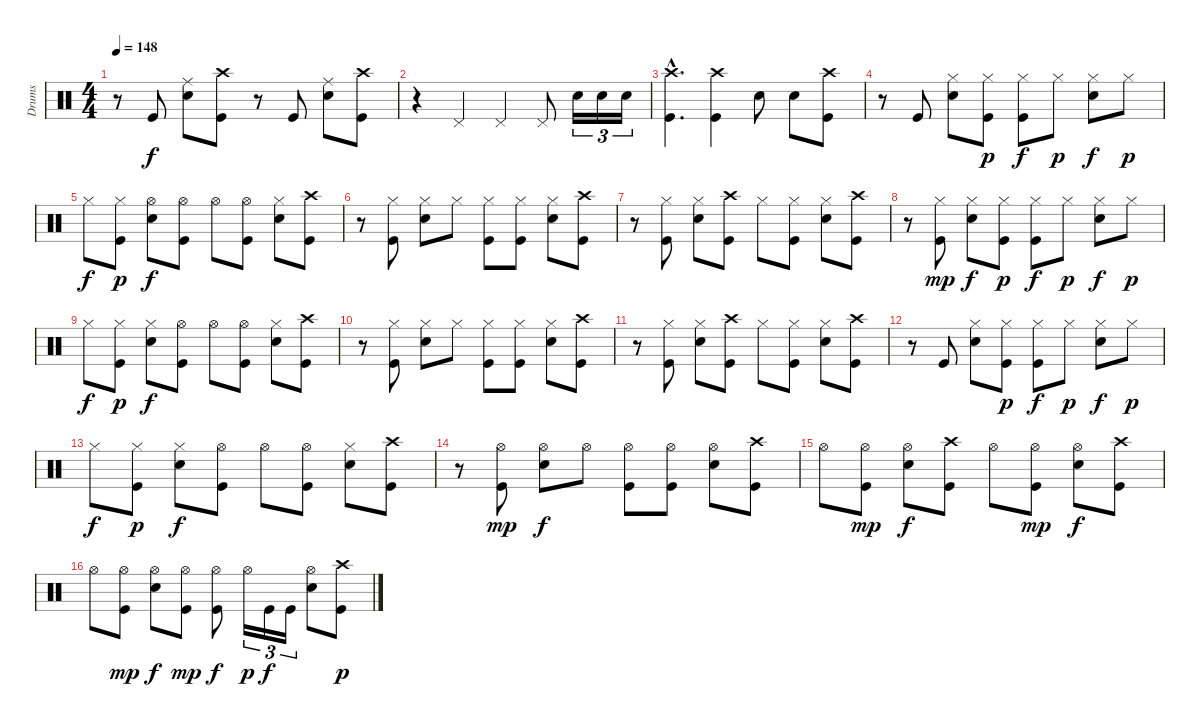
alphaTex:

\track ("Drums" "Drums") {instrument percussion}
\staff {score}
\articulation defaults
\ts (4 4)
\tempo 148
\clef neutral
\ks c
r.8{dy f} "Kick (hit)".8 ("Ride (middle)" "Snare (hit) 2").8 ("Crash high (hit)" "Kick (hit)").8 r.8 "Kick (hit)".8 ("Ride (middle)" "Snare (hit) 2").8 ("Crash high (hit)" "Kick (hit)").8 |
r.4 "Pedal Hi-Hat (hit)".4 "Pedal Hi-Hat (hit)".4 "Pedal Hi-Hat (hit)".8 "Snare (hit) 2".16{tu (3 2)} "Snare (hit) 2".16{tu (3 2)} "Snare (hit) 2".16{tu (3 2)} |
("Crash high (hit)"{hac} "Kick (hit)"{hac}).4{d} ("Crash high (hit)" "Kick (hit)").4 "Snare (hit) 2".8 "Snare (hit) 2".8 ("Crash high (hit)" "Kick (hit)").8 |
r.8 "Kick (hit)".8 ("Hi-Hat (closed)" "Snare (hit) 2").8 ("Hi-Hat (closed)" "Kick (hit)").8{dy p} ("Hi-Hat (closed)" "Kick (hit)").8{dy f} "Hi-Hat (closed)".8{dy p} ("Hi-Hat (closed)" "Snare (hit) 2").8{dy f} "Hi-Hat (closed)".8{dy p} |
"Hi-Hat (closed)".8{dy f} ("Hi-Hat (closed)" "Kick (hit)").8{dy p} ("Hi-Hat (open)" "Snare (hit) 2").8{dy f} ("Hi-Hat (open)" "Kick (hit)").8 "Hi-Hat (open)".8 ("Hi-Hat (open)" "Kick (hit)").8 ("Hi-Hat (closed)" "Snare (hit) 2").8 ("Crash high (hit)" "Kick (hit)").8 |
r.8 ("Hi-Hat (closed)" "Kick (hit)").8 ("Hi-Hat (closed)" "Snare (hit) 2").8 "Hi-Hat (closed)".8 ("Hi-Hat (closed)" "Kick (hit)").8 ("Hi-Hat (closed)" "Kick (hit)").8 ("Hi-Hat (closed)" "Snare (hit) 2").8 ("Crash high (hit)" "Kick (hit)").8 |
r.8 ("Hi-Hat (closed)" "Kick (hit)").8 ("Hi-Hat (closed)" "Snare (hit) 2").8 ("Crash high (hit)" "Kick (hit)").8 "Hi-Hat (closed)".8 ("Hi-Hat (closed)" "Kick (hit)").8 ("Hi-Hat (closed)" "Snare (hit) 2").8 ("Crash high (hit)" "Kick (hit)").8 |
r.8 ("Hi-Hat (closed)" "Kick (hit)").8{dy mp} ("Hi-Hat (closed)" "Snare (hit) 2").8{dy f} ("Hi-Hat (closed)" "Kick (hit)").8{dy p} ("Hi-Hat (closed)" "Kick (hit)").8{dy f} "Hi-Hat (closed)".8{dy p} ("Hi-Hat (closed)" "Snare (hit) 2").8{dy f} "Hi-Hat (closed)".8{dy p} |
"Hi-Hat (closed)".8{dy f} ("Hi-Hat (closed)" "Kick (hit)").8{dy p} ("Hi-Hat (closed)" "Snare (hit) 2").8{dy f} ("Hi-Hat (open)" "Kick (hit)").8 "Hi-Hat (open)".8 ("Hi-Hat (open)" "Kick (hit)").8 ("Hi-Hat (closed)" "Snare (hit) 2").8 ("Crash high (hit)" "Kick (hit)").8 |
r.8 ("Hi-Hat (closed)" "Kick (hit)").8 ("Hi-Hat (closed)" "Snare (hit) 2").8 "Hi-Hat (closed)".8 ("Hi-Hat (closed)" "Kick (hit)").8 ("Hi-Hat (closed)" "Kick (hit)").8 ("Hi-Hat (closed)" "Snare (hit) 2").8 ("Crash high (hit)" "Kick (hit)").8 |
r.8 ("Hi-Hat (closed)" "Kick (hit)").8 ("Hi-Hat (closed)" "Snare (hit) 2").8 ("Crash high (hit)" "Kick (hit)").8 "Hi-Hat (closed)".8 ("Hi-Hat (closed)" "Kick (hit)").8 ("Hi-Hat (closed)" "Snare (hit) 2").8 ("Crash high (hit)" "Kick (hit)").8 |
r.8 "Kick (hit)".8 ("Hi-Hat (closed)" "Snare (hit) 2").8 ("Hi-Hat (closed)" "Kick (hit)").8{dy p} ("Hi-Hat (closed)" "Kick (hit)").8{dy f} "Hi-Hat (closed)".8{dy p} ("Hi-Hat (closed)" "Snare (hit) 2").8{dy f} "Hi-Hat (closed)".8{dy p} |
"Hi-Hat (closed)".8{dy f} ("Hi-Hat (closed)" "Kick (hit)").8{dy p} ("Hi-Hat (closed)" "Snare (hit) 2").8{dy f} ("Hi-Hat (open)" "Kick (hit)").8 "Hi-Hat (open)".8 ("Hi-Hat (open)" "Kick (hit)").8 ("Hi-Hat (closed)" "Snare (hit) 2").8 ("Crash high (hit)" "Kick (hit)").8 |
r.8 ("Hi-Hat (open)" "Kick (hit)").8{dy mp} ("Hi-Hat (open)" "Snare (hit) 2").8{dy f} "Hi-Hat (open)".8 ("Hi-Hat (open)" "Kick (hit)").8 ("Hi-Hat (open)" "Kick (hit)").8 ("Hi-Hat (open)" "Snare (hit) 2").8 ("Crash high (hit)" "Kick (hit)").8 |
"Hi-Hat (open)".8 ("Hi-Hat (open)" "Kick (hit)").8{dy mp} ("Hi-Hat (open)" "Snare (hit) 2").8{dy f} ("Crash high (hit)" "Kick (hit)").8 "Hi-Hat (open)".8 ("Hi-Hat (open)" "Kick (hit)").8{dy mp} ("Hi-Hat (open)" "Snare (hit) 2").8{dy f} ("Crash high (hit)" "Kick (hit)").8 |
"Hi-Hat (open)".8 ("Hi-Hat (open)" "Kick (hit)").8{dy mp} ("Hi-Hat (open)" "Snare (hit) 2").8{dy f} ("Hi-Hat (open)" "Kick (hit)").8{dy mp} ("Hi-Hat (open)" "Kick (hit)").8{dy f} "Hi-Hat (open)".16{tu (3 2) dy p} "Kick (hit)".16{tu (3 2) dy f} "Kick (hit)".16{tu (3 2)} ("Hi-Hat (open)" "Snare (hit) 2").8 ("Crash high (hit)" "Kick (hit)").8{dy p}
